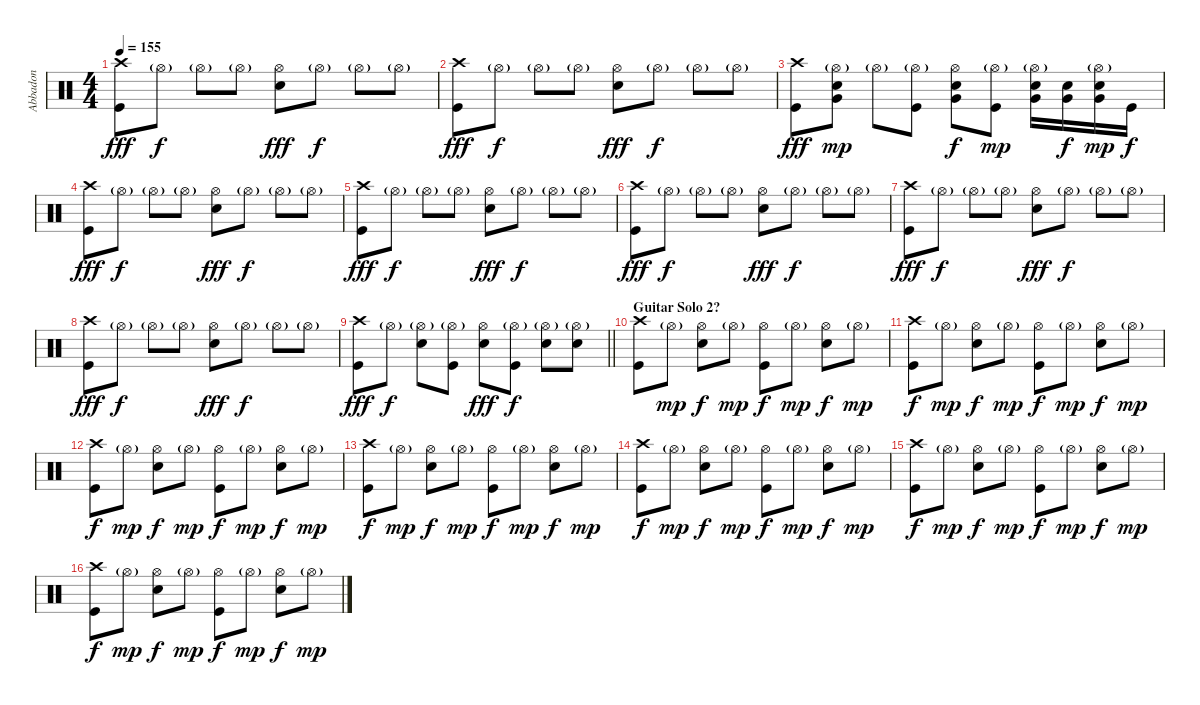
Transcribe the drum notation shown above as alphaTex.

\track ("Abbadon" "Abbadon") {instrument percussion}
\staff {score}
\articulation defaults
\ts (4 4)
\tempo 155
\clef neutral
\ks c
("Crash high (hit)" "Kick (hit)").8{dy fff} "Hi-Hat (open)"{g}.8{dy f} "Hi-Hat (open)"{g}.8 "Hi-Hat (open)"{g}.8 ("Hi-Hat (open)" "Electric Snare (hit)").8{dy fff} "Hi-Hat (open)"{g}.8{dy f} "Hi-Hat (open)"{g}.8 "Hi-Hat (open)"{g}.8 |
("Crash high (hit)" "Kick (hit)").8{dy fff} "Hi-Hat (open)"{g}.8{dy f} "Hi-Hat (open)"{g}.8 "Hi-Hat (open)"{g}.8 ("Hi-Hat (open)" "Electric Snare (hit)").8{dy fff} "Hi-Hat (open)"{g}.8{dy f} "Hi-Hat (open)"{g}.8 "Hi-Hat (open)"{g}.8 |
("Crash high (hit)" "Kick (hit)").8{dy fff} ("Hi-Hat (open)"{g} "Electric Snare (hit)" "Very Low Tom (hit)").8{dy mp} "Hi-Hat (open)"{g}.8 ("Hi-Hat (open)"{g} "Kick (hit)").8 ("Hi-Hat (open)" "Electric Snare (hit)" "Very Low Tom (hit)").8{dy f} ("Hi-Hat (open)"{g} "Kick (hit)").8{dy mp} ("Hi-Hat (open)"{g} "Electric Snare (hit)" "Very Low Tom (hit)").16 ("Electric Snare (hit)" "Very Low Tom (hit)").16{dy f} ("Hi-Hat (open)"{g} "Electric Snare (hit)" "Very Low Tom (hit)").16{dy mp} "Kick (hit)".16{dy f} |
("Crash high (hit)" "Kick (hit)").8{dy fff} "Hi-Hat (open)"{g}.8{dy f} "Hi-Hat (open)"{g}.8 "Hi-Hat (open)"{g}.8 ("Hi-Hat (open)" "Electric Snare (hit)").8{dy fff} "Hi-Hat (open)"{g}.8{dy f} "Hi-Hat (open)"{g}.8 "Hi-Hat (open)"{g}.8 |
("Crash high (hit)" "Kick (hit)").8{dy fff} "Hi-Hat (open)"{g}.8{dy f} "Hi-Hat (open)"{g}.8 "Hi-Hat (open)"{g}.8 ("Hi-Hat (open)" "Electric Snare (hit)").8{dy fff} "Hi-Hat (open)"{g}.8{dy f} "Hi-Hat (open)"{g}.8 "Hi-Hat (open)"{g}.8 |
("Crash high (hit)" "Kick (hit)").8{dy fff} "Hi-Hat (open)"{g}.8{dy f} "Hi-Hat (open)"{g}.8 "Hi-Hat (open)"{g}.8 ("Hi-Hat (open)" "Electric Snare (hit)").8{dy fff} "Hi-Hat (open)"{g}.8{dy f} "Hi-Hat (open)"{g}.8 "Hi-Hat (open)"{g}.8 |
("Crash high (hit)" "Kick (hit)").8{dy fff} "Hi-Hat (open)"{g}.8{dy f} "Hi-Hat (open)"{g}.8 "Hi-Hat (open)"{g}.8 ("Hi-Hat (open)" "Electric Snare (hit)").8{dy fff} "Hi-Hat (open)"{g}.8{dy f} "Hi-Hat (open)"{g}.8 "Hi-Hat (open)"{g}.8 |
("Crash high (hit)" "Kick (hit)").8{dy fff} "Hi-Hat (open)"{g}.8{dy f} "Hi-Hat (open)"{g}.8 "Hi-Hat (open)"{g}.8 ("Hi-Hat (open)" "Electric Snare (hit)").8{dy fff} "Hi-Hat (open)"{g}.8{dy f} "Hi-Hat (open)"{g}.8 "Hi-Hat (open)"{g}.8 |
\barLineRight lightlight
("Crash high (hit)" "Kick (hit)").8{dy fff} "Hi-Hat (open)"{g}.8{dy f} ("Hi-Hat (open)"{g} "Electric Snare (hit)").8 ("Hi-Hat (open)"{g} "Kick (hit)").8 ("Hi-Hat (open)" "Electric Snare (hit)").8{dy fff} ("Hi-Hat (open)"{g} "Kick (hit)").8{dy f} ("Hi-Hat (open)"{g} "Electric Snare (hit)").8 ("Hi-Hat (open)"{g} "Electric Snare (hit)").8 |
\section ("" "Guitar Solo 2?")
("Crash high (hit)" "Kick (hit)").8 "Hi-Hat (open)"{g}.8{dy mp} ("Hi-Hat (open)" "Electric Snare (hit)").8{dy f} "Hi-Hat (open)"{g}.8{dy mp} ("Hi-Hat (open)" "Kick (hit)").8{dy f} "Hi-Hat (open)"{g}.8{dy mp} ("Hi-Hat (open)" "Electric Snare (hit)").8{dy f} "Hi-Hat (open)"{g}.8{dy mp} |
("Crash high (hit)" "Kick (hit)").8{dy f} "Hi-Hat (open)"{g}.8{dy mp} ("Hi-Hat (open)" "Electric Snare (hit)").8{dy f} "Hi-Hat (open)"{g}.8{dy mp} ("Hi-Hat (open)" "Kick (hit)").8{dy f} "Hi-Hat (open)"{g}.8{dy mp} ("Hi-Hat (open)" "Electric Snare (hit)").8{dy f} "Hi-Hat (open)"{g}.8{dy mp} |
("Crash high (hit)" "Kick (hit)").8{dy f} "Hi-Hat (open)"{g}.8{dy mp} ("Hi-Hat (open)" "Electric Snare (hit)").8{dy f} "Hi-Hat (open)"{g}.8{dy mp} ("Hi-Hat (open)" "Kick (hit)").8{dy f} "Hi-Hat (open)"{g}.8{dy mp} ("Hi-Hat (open)" "Electric Snare (hit)").8{dy f} "Hi-Hat (open)"{g}.8{dy mp} |
("Crash high (hit)" "Kick (hit)").8{dy f} "Hi-Hat (open)"{g}.8{dy mp} ("Hi-Hat (open)" "Electric Snare (hit)").8{dy f} "Hi-Hat (open)"{g}.8{dy mp} ("Hi-Hat (open)" "Kick (hit)").8{dy f} "Hi-Hat (open)"{g}.8{dy mp} ("Hi-Hat (open)" "Electric Snare (hit)").8{dy f} "Hi-Hat (open)"{g}.8{dy mp} |
("Crash high (hit)" "Kick (hit)").8{dy f} "Hi-Hat (open)"{g}.8{dy mp} ("Hi-Hat (open)" "Electric Snare (hit)").8{dy f} "Hi-Hat (open)"{g}.8{dy mp} ("Hi-Hat (open)" "Kick (hit)").8{dy f} "Hi-Hat (open)"{g}.8{dy mp} ("Hi-Hat (open)" "Electric Snare (hit)").8{dy f} "Hi-Hat (open)"{g}.8{dy mp} |
("Crash high (hit)" "Kick (hit)").8{dy f} "Hi-Hat (open)"{g}.8{dy mp} ("Hi-Hat (open)" "Electric Snare (hit)").8{dy f} "Hi-Hat (open)"{g}.8{dy mp} ("Hi-Hat (open)" "Kick (hit)").8{dy f} "Hi-Hat (open)"{g}.8{dy mp} ("Hi-Hat (open)" "Electric Snare (hit)").8{dy f} "Hi-Hat (open)"{g}.8{dy mp} |
("Crash high (hit)" "Kick (hit)").8{dy f} "Hi-Hat (open)"{g}.8{dy mp} ("Hi-Hat (open)" "Electric Snare (hit)").8{dy f} "Hi-Hat (open)"{g}.8{dy mp} ("Hi-Hat (open)" "Kick (hit)").8{dy f} "Hi-Hat (open)"{g}.8{dy mp} ("Hi-Hat (open)" "Electric Snare (hit)").8{dy f} "Hi-Hat (open)"{g}.8{dy mp}
